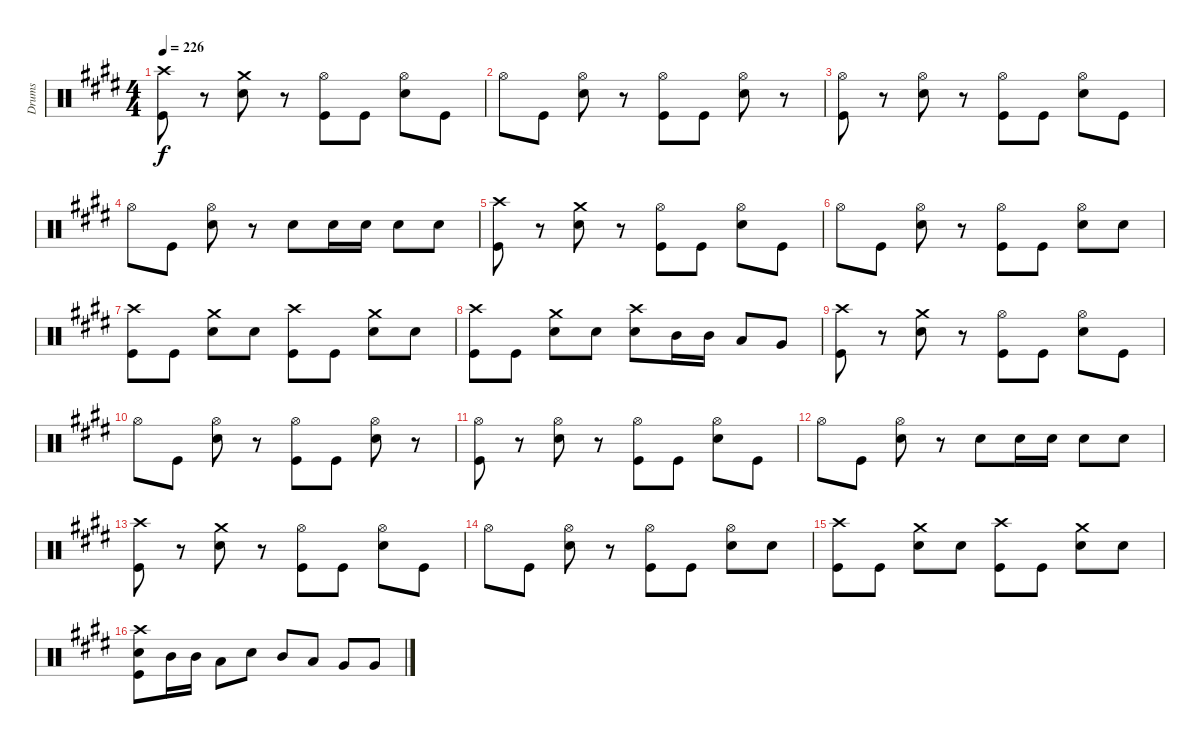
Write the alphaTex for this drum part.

\track ("Drums" "Drums") {instrument percussion}
\staff {score}
\articulation defaults
\ts (4 4)
\tempo 226
\clef neutral
\ks e
("Crash high (hit)" "Kick (hit)").8{dy f} r.8 ("Crash medium (hit)" "Snare (hit) 2").8 r.8 ("Hi-Hat (open)" "Kick (hit)").8 "Kick (hit)".8 ("Hi-Hat (open)" "Snare (hit) 2").8 "Kick (hit)".8 |
"Hi-Hat (open)".8 "Kick (hit)".8 ("Hi-Hat (open)" "Snare (hit) 2").8 r.8 ("Hi-Hat (open)" "Kick (hit)").8 "Kick (hit)".8 ("Hi-Hat (open)" "Snare (hit) 2").8 r.8 |
("Hi-Hat (open)" "Kick (hit)").8 r.8 ("Hi-Hat (open)" "Snare (hit) 2").8 r.8 ("Hi-Hat (open)" "Kick (hit)").8 "Kick (hit)".8 ("Hi-Hat (open)" "Snare (hit) 2").8 "Kick (hit)".8 |
"Hi-Hat (open)".8 "Kick (hit)".8 ("Hi-Hat (open)" "Snare (hit) 2").8 r.8 "Snare (hit) 2".8 "Snare (hit) 2".16 "Snare (hit) 2".16 "Snare (hit) 2".8 "Snare (hit) 2".8 |
("Crash high (hit)" "Kick (hit)").8 r.8 ("Crash medium (hit)" "Snare (hit) 2").8 r.8 ("Hi-Hat (open)" "Kick (hit)").8 "Kick (hit)".8 ("Hi-Hat (open)" "Snare (hit) 2").8 "Kick (hit)".8 |
"Hi-Hat (open)".8 "Kick (hit)".8 ("Hi-Hat (open)" "Snare (hit) 2").8 r.8 ("Hi-Hat (open)" "Kick (hit)").8 "Kick (hit)".8 ("Hi-Hat (open)" "Snare (hit) 2").8 "Snare (hit) 2".8 |
("Crash high (hit)" "Kick (hit)").8 "Kick (hit)".8 ("Crash medium (hit)" "Snare (hit) 2").8 "Snare (hit) 2".8 ("Crash high (hit)" "Kick (hit)").8 "Kick (hit)".8 ("Crash medium (hit)" "Snare (hit) 2").8 "Snare (hit) 2".8 |
("Crash high (hit)" "Kick (hit)").8 "Kick (hit)".8 ("Crash medium (hit)" "Snare (hit) 2").8 "Snare (hit) 2".8 ("Crash high (hit)" "Snare (hit) 2").8 "Mid Tom (hit)".16 "Mid Tom (hit)".16 "Low Tom (hit)".8 "Very Low Tom (hit)".8 |
("Crash high (hit)" "Kick (hit)").8 r.8 ("Crash medium (hit)" "Snare (hit) 2").8 r.8 ("Hi-Hat (open)" "Kick (hit)").8 "Kick (hit)".8 ("Hi-Hat (open)" "Snare (hit) 2").8 "Kick (hit)".8 |
"Hi-Hat (open)".8 "Kick (hit)".8 ("Hi-Hat (open)" "Snare (hit) 2").8 r.8 ("Hi-Hat (open)" "Kick (hit)").8 "Kick (hit)".8 ("Hi-Hat (open)" "Snare (hit) 2").8 r.8 |
("Hi-Hat (open)" "Kick (hit)").8 r.8 ("Hi-Hat (open)" "Snare (hit) 2").8 r.8 ("Hi-Hat (open)" "Kick (hit)").8 "Kick (hit)".8 ("Hi-Hat (open)" "Snare (hit) 2").8 "Kick (hit)".8 |
"Hi-Hat (open)".8 "Kick (hit)".8 ("Hi-Hat (open)" "Snare (hit) 2").8 r.8 "Snare (hit) 2".8 "Snare (hit) 2".16 "Snare (hit) 2".16 "Snare (hit) 2".8 "Snare (hit) 2".8 |
("Crash high (hit)" "Kick (hit)").8 r.8 ("Crash medium (hit)" "Snare (hit) 2").8 r.8 ("Hi-Hat (open)" "Kick (hit)").8 "Kick (hit)".8 ("Hi-Hat (open)" "Snare (hit) 2").8 "Kick (hit)".8 |
"Hi-Hat (open)".8 "Kick (hit)".8 ("Hi-Hat (open)" "Snare (hit) 2").8 r.8 ("Hi-Hat (open)" "Kick (hit)").8 "Kick (hit)".8 ("Hi-Hat (open)" "Snare (hit) 2").8 "Snare (hit) 2".8 |
("Crash high (hit)" "Kick (hit)").8 "Kick (hit)".8 ("Crash medium (hit)" "Snare (hit) 2").8 "Snare (hit) 2".8 ("Crash high (hit)" "Kick (hit)").8 "Kick (hit)".8 ("Crash medium (hit)" "Snare (hit) 2").8 "Snare (hit) 2".8 |
("Crash high (hit)" "Snare (hit) 2" "Kick (hit)").8 "Mid Tom (hit)".16 "Mid Tom (hit)".16 "Low Tom (hit)".8 "Snare (hit) 2".8 "Mid Tom (hit)".8 "Low Tom (hit)".8 "Very Low Tom (hit)".8 "Very Low Tom (hit)".8
